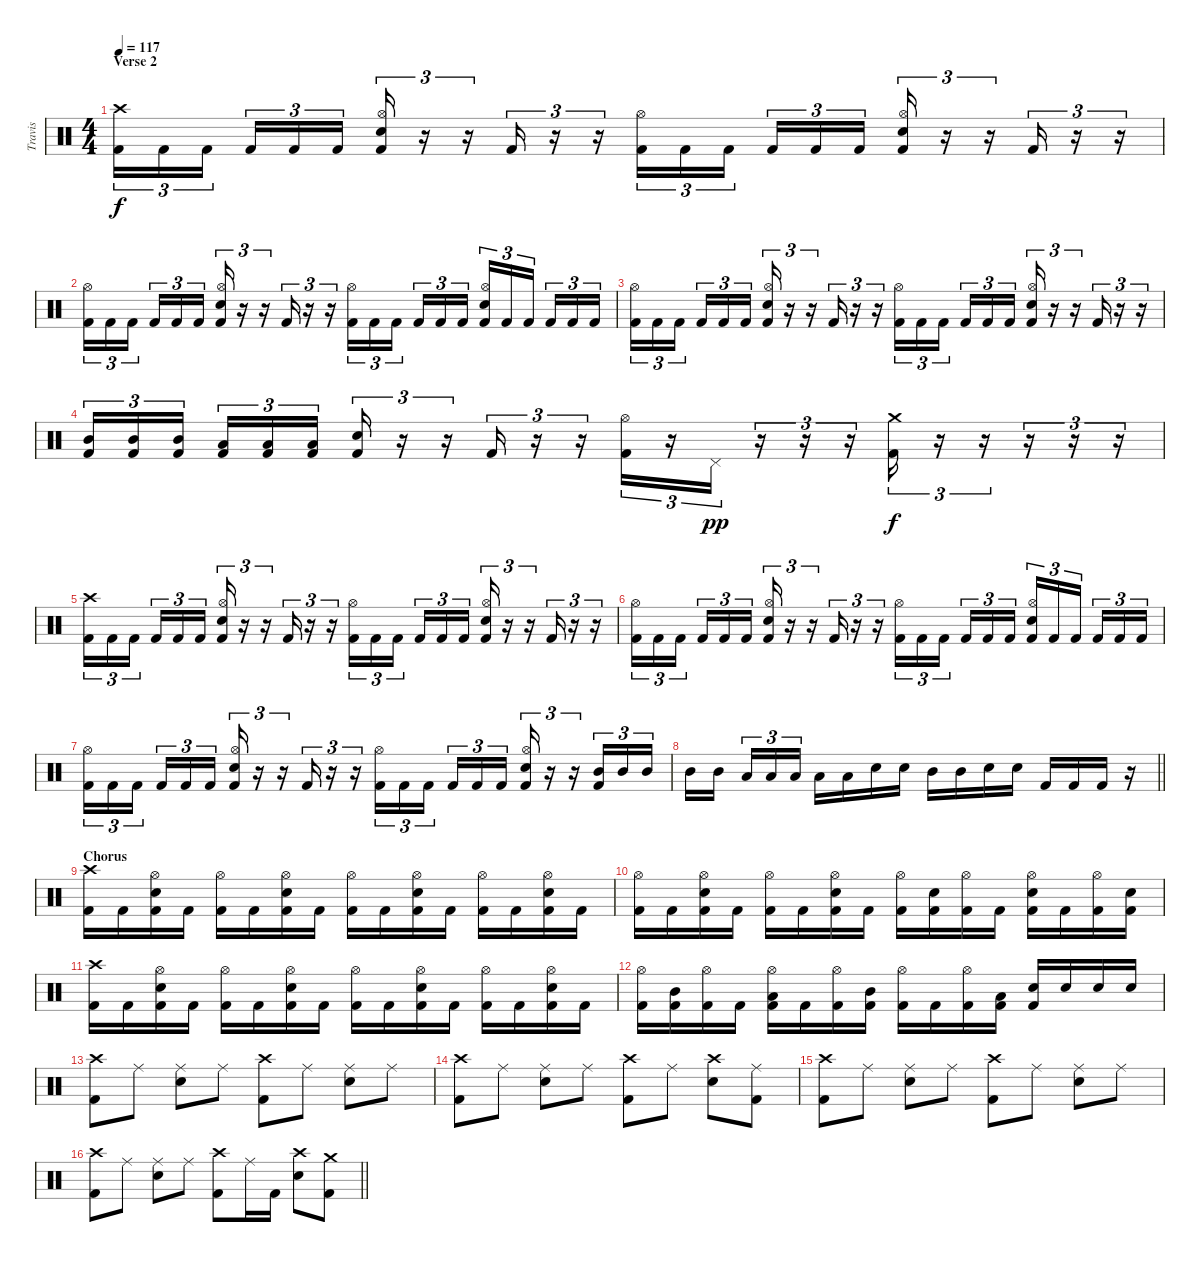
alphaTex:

\track ("Travis" "Travis") {instrument percussion}
\staff {score}
\articulation defaults
\ts (4 4)
\section ("" "Verse 2")
\tempo 117
\clef neutral
\ks c
("Crash high (hit)" "Kick (hit) 2").16{tu (3 2) dy f} "Kick (hit) 2".16{tu (3 2)} "Kick (hit) 2".16{tu (3 2) beam splitsecondary} "Kick (hit) 2".16{tu (3 2)} "Kick (hit) 2".16{tu (3 2)} "Kick (hit) 2".16{tu (3 2)} ("Hi-Hat (open)" "Electric Snare (hit)" "Kick (hit) 2").16{tu (3 2)} r.16{tu (3 2)} r.16{tu (3 2)} "Kick (hit) 2".16{tu (3 2)} r.16{tu (3 2)} r.16{tu (3 2)} ("Hi-Hat (open)" "Kick (hit) 2").16{tu (3 2)} "Kick (hit) 2".16{tu (3 2)} "Kick (hit) 2".16{tu (3 2) beam splitsecondary} "Kick (hit) 2".16{tu (3 2)} "Kick (hit) 2".16{tu (3 2)} "Kick (hit) 2".16{tu (3 2)} ("Hi-Hat (open)" "Electric Snare (hit)" "Kick (hit) 2").16{tu (3 2)} r.16{tu (3 2)} r.16{tu (3 2)} "Kick (hit) 2".16{tu (3 2)} r.16{tu (3 2)} r.16{tu (3 2)} |
("Hi-Hat (open)" "Kick (hit) 2").16{tu (3 2)} "Kick (hit) 2".16{tu (3 2)} "Kick (hit) 2".16{tu (3 2) beam splitsecondary} "Kick (hit) 2".16{tu (3 2)} "Kick (hit) 2".16{tu (3 2)} "Kick (hit) 2".16{tu (3 2)} ("Hi-Hat (open)" "Electric Snare (hit)" "Kick (hit) 2").16{tu (3 2)} r.16{tu (3 2)} r.16{tu (3 2)} "Kick (hit) 2".16{tu (3 2)} r.16{tu (3 2)} r.16{tu (3 2)} ("Hi-Hat (open)" "Kick (hit) 2").16{tu (3 2)} "Kick (hit) 2".16{tu (3 2)} "Kick (hit) 2".16{tu (3 2) beam splitsecondary} "Kick (hit) 2".16{tu (3 2)} "Kick (hit) 2".16{tu (3 2)} "Kick (hit) 2".16{tu (3 2)} ("Hi-Hat (open)" "Electric Snare (hit)" "Kick (hit) 2").16{tu (3 2)} "Kick (hit) 2".16{tu (3 2)} "Kick (hit) 2".16{tu (3 2) beam splitsecondary} "Kick (hit) 2".16{tu (3 2)} "Kick (hit) 2".16{tu (3 2)} "Kick (hit) 2".16{tu (3 2)} |
("Hi-Hat (open)" "Kick (hit) 2").16{tu (3 2)} "Kick (hit) 2".16{tu (3 2)} "Kick (hit) 2".16{tu (3 2) beam splitsecondary} "Kick (hit) 2".16{tu (3 2)} "Kick (hit) 2".16{tu (3 2)} "Kick (hit) 2".16{tu (3 2)} ("Hi-Hat (open)" "Electric Snare (hit)" "Kick (hit) 2").16{tu (3 2)} r.16{tu (3 2)} r.16{tu (3 2)} "Kick (hit) 2".16{tu (3 2)} r.16{tu (3 2)} r.16{tu (3 2)} ("Hi-Hat (open)" "Kick (hit) 2").16{tu (3 2)} "Kick (hit) 2".16{tu (3 2)} "Kick (hit) 2".16{tu (3 2) beam splitsecondary} "Kick (hit) 2".16{tu (3 2)} "Kick (hit) 2".16{tu (3 2)} "Kick (hit) 2".16{tu (3 2)} ("Hi-Hat (open)" "Electric Snare (hit)" "Kick (hit) 2").16{tu (3 2)} r.16{tu (3 2)} r.16{tu (3 2)} "Kick (hit) 2".16{tu (3 2)} r.16{tu (3 2)} r.16{tu (3 2)} |
("Mid Tom (hit)" "Kick (hit) 2").16{tu (3 2)} ("Mid Tom (hit)" "Kick (hit) 2").16{tu (3 2)} ("Mid Tom (hit)" "Kick (hit) 2").16{tu (3 2) beam splitsecondary} ("Low Tom (hit)" "Kick (hit) 2").16{tu (3 2)} ("Low Tom (hit)" "Kick (hit) 2").16{tu (3 2)} ("Low Tom (hit)" "Kick (hit) 2").16{tu (3 2)} ("Electric Snare (hit)" "Kick (hit) 2").16{tu (3 2)} r.16{tu (3 2)} r.16{tu (3 2)} "Kick (hit) 2".16{tu (3 2)} r.16{tu (3 2)} r.16{tu (3 2)} ("Hi-Hat (open)" "Kick (hit) 2").16{tu (3 2)} r.16{tu (3 2)} "Pedal Hi-Hat (hit)".16{tu (3 2) dy pp} r.16{tu (3 2)} r.16{tu (3 2)} r.16{tu (3 2)} ("Crash medium (hit)" "Kick (hit) 2").16{tu (3 2) dy f} r.16{tu (3 2)} r.16{tu (3 2)} r.16{tu (3 2)} r.16{tu (3 2)} r.16{tu (3 2)} |
("Crash high (hit)" "Kick (hit) 2").16{tu (3 2)} "Kick (hit) 2".16{tu (3 2)} "Kick (hit) 2".16{tu (3 2) beam splitsecondary} "Kick (hit) 2".16{tu (3 2)} "Kick (hit) 2".16{tu (3 2)} "Kick (hit) 2".16{tu (3 2)} ("Hi-Hat (open)" "Electric Snare (hit)" "Kick (hit) 2").16{tu (3 2)} r.16{tu (3 2)} r.16{tu (3 2)} "Kick (hit) 2".16{tu (3 2)} r.16{tu (3 2)} r.16{tu (3 2)} ("Hi-Hat (open)" "Kick (hit) 2").16{tu (3 2)} "Kick (hit) 2".16{tu (3 2)} "Kick (hit) 2".16{tu (3 2) beam splitsecondary} "Kick (hit) 2".16{tu (3 2)} "Kick (hit) 2".16{tu (3 2)} "Kick (hit) 2".16{tu (3 2)} ("Hi-Hat (open)" "Electric Snare (hit)" "Kick (hit) 2").16{tu (3 2)} r.16{tu (3 2)} r.16{tu (3 2)} "Kick (hit) 2".16{tu (3 2)} r.16{tu (3 2)} r.16{tu (3 2)} |
("Hi-Hat (open)" "Kick (hit) 2").16{tu (3 2)} "Kick (hit) 2".16{tu (3 2)} "Kick (hit) 2".16{tu (3 2) beam splitsecondary} "Kick (hit) 2".16{tu (3 2)} "Kick (hit) 2".16{tu (3 2)} "Kick (hit) 2".16{tu (3 2)} ("Hi-Hat (open)" "Electric Snare (hit)" "Kick (hit) 2").16{tu (3 2)} r.16{tu (3 2)} r.16{tu (3 2)} "Kick (hit) 2".16{tu (3 2)} r.16{tu (3 2)} r.16{tu (3 2)} ("Hi-Hat (open)" "Kick (hit) 2").16{tu (3 2)} "Kick (hit) 2".16{tu (3 2)} "Kick (hit) 2".16{tu (3 2) beam splitsecondary} "Kick (hit) 2".16{tu (3 2)} "Kick (hit) 2".16{tu (3 2)} "Kick (hit) 2".16{tu (3 2)} ("Hi-Hat (open)" "Electric Snare (hit)" "Kick (hit) 2").16{tu (3 2)} "Kick (hit) 2".16{tu (3 2)} "Kick (hit) 2".16{tu (3 2) beam splitsecondary} "Kick (hit) 2".16{tu (3 2)} "Kick (hit) 2".16{tu (3 2)} "Kick (hit) 2".16{tu (3 2)} |
("Hi-Hat (open)" "Kick (hit) 2").16{tu (3 2)} "Kick (hit) 2".16{tu (3 2)} "Kick (hit) 2".16{tu (3 2) beam splitsecondary} "Kick (hit) 2".16{tu (3 2)} "Kick (hit) 2".16{tu (3 2)} "Kick (hit) 2".16{tu (3 2)} ("Hi-Hat (open)" "Electric Snare (hit)" "Kick (hit) 2").16{tu (3 2)} r.16{tu (3 2)} r.16{tu (3 2)} "Kick (hit) 2".16{tu (3 2)} r.16{tu (3 2)} r.16{tu (3 2)} ("Hi-Hat (open)" "Kick (hit) 2").16{tu (3 2)} "Kick (hit) 2".16{tu (3 2)} "Kick (hit) 2".16{tu (3 2) beam splitsecondary} "Kick (hit) 2".16{tu (3 2)} "Kick (hit) 2".16{tu (3 2)} "Kick (hit) 2".16{tu (3 2)} ("Hi-Hat (open)" "Electric Snare (hit)" "Kick (hit) 2").16{tu (3 2)} r.16{tu (3 2)} r.16{tu (3 2)} ("Mid Tom (hit)" "Kick (hit) 2").16{tu (3 2)} "Mid Tom (hit)".16{tu (3 2)} "Mid Tom (hit)".16{tu (3 2)} |
\barLineRight lightlight "Mid Tom (hit)".16 "Mid Tom (hit)".16{beam splitsecondary} "Low Tom (hit)".16{tu (3 2)} "Low Tom (hit)".16{tu (3 2)} "Low Tom (hit)".16{tu (3 2)} "Low Tom (hit)".16 "Low Tom (hit)".16 "Electric Snare (hit)".16 "Electric Snare (hit)".16 "Mid Tom (hit)".16 "Mid Tom (hit)".16 "Electric Snare (hit)".16 "Electric Snare (hit)".16 "Kick (hit) 2".16 "Kick (hit) 2".16 "Kick (hit) 2".16
r.16 |
\section ("" "Chorus")
("Crash high (hit)" "Kick (hit) 2").16 "Kick (hit) 2".16 ("Hi-Hat (open)" "Electric Snare (hit)" "Kick (hit) 2").16 "Kick (hit) 2".16 ("Hi-Hat (open)" "Kick (hit) 2").16 "Kick (hit) 2".16 ("Hi-Hat (open)" "Electric Snare (hit)" "Kick (hit) 2").16 "Kick (hit) 2".16 ("Hi-Hat (open)" "Kick (hit) 2").16 "Kick (hit) 2".16 ("Hi-Hat (open)" "Electric Snare (hit)" "Kick (hit) 2").16 "Kick (hit) 2".16 ("Hi-Hat (open)" "Kick (hit) 2").16 "Kick (hit) 2".16 ("Hi-Hat (open)" "Electric Snare (hit)" "Kick (hit) 2").16 "Kick (hit) 2".16 |
("Hi-Hat (open)" "Kick (hit) 2").16 "Kick (hit) 2".16 ("Hi-Hat (open)" "Electric Snare (hit)" "Kick (hit) 2").16 "Kick (hit) 2".16 ("Hi-Hat (open)" "Kick (hit) 2").16 "Kick (hit) 2".16 ("Hi-Hat (open)" "Electric Snare (hit)" "Kick (hit) 2").16 "Kick (hit) 2".16 ("Hi-Hat (open)" "Kick (hit) 2").16 ("Electric Snare (hit)" "Kick (hit) 2").16 ("Hi-Hat (open)" "Kick (hit) 2").16 "Kick (hit) 2".16 ("Hi-Hat (open)" "Electric Snare (hit)" "Kick (hit) 2").16 "Kick (hit) 2".16 ("Hi-Hat (open)" "Kick (hit) 2").16 ("Electric Snare (hit)" "Kick (hit) 2").16 |
("Crash high (hit)" "Kick (hit) 2").16 "Kick (hit) 2".16 ("Hi-Hat (open)" "Electric Snare (hit)" "Kick (hit) 2").16 "Kick (hit) 2".16 ("Hi-Hat (open)" "Kick (hit) 2").16 "Kick (hit) 2".16 ("Hi-Hat (open)" "Electric Snare (hit)" "Kick (hit) 2").16 "Kick (hit) 2".16 ("Hi-Hat (open)" "Kick (hit) 2").16 "Kick (hit) 2".16 ("Hi-Hat (open)" "Electric Snare (hit)" "Kick (hit) 2").16 "Kick (hit) 2".16 ("Hi-Hat (open)" "Kick (hit) 2").16 "Kick (hit) 2".16 ("Hi-Hat (open)" "Electric Snare (hit)" "Kick (hit) 2").16 "Kick (hit) 2".16 |
("Hi-Hat (open)" "Kick (hit) 2").16 ("Mid Tom (hit)" "Kick (hit) 2").16 ("Hi-Hat (open)" "Kick (hit) 2").16 "Kick (hit) 2".16 ("Hi-Hat (open)" "Low Tom (hit)" "Kick (hit) 2").16 "Kick (hit) 2".16 ("Hi-Hat (open)" "Kick (hit) 2").16 ("Mid Tom (hit)" "Kick (hit) 2").16 ("Hi-Hat (open)" "Kick (hit) 2").16 "Kick (hit) 2".16 ("Hi-Hat (open)" "Kick (hit) 2").16 ("Low Tom (hit)" "Kick (hit) 2").16 ("Electric Snare (hit)" "Kick (hit) 2").16 "Electric Snare (hit)".16 "Electric Snare (hit)".16 "Electric Snare (hit)".16 |
("Crash high (hit)" "Kick (hit) 2").8 "Ride (middle)".8 ("Ride (middle)" "Electric Snare (hit)").8 "Ride (middle)".8 ("Crash high (hit)" "Kick (hit) 2").8 "Ride (middle)".8 ("Ride (middle)" "Electric Snare (hit)").8 "Ride (middle)".8 |
("Crash high (hit)" "Kick (hit) 2").8 "Ride (middle)".8 ("Ride (middle)" "Electric Snare (hit)").8 "Ride (middle)".8 ("Crash high (hit)" "Kick (hit) 2").8 "Ride (middle)".8 ("Crash high (hit)" "Electric Snare (hit)").8 ("Ride (middle)" "Kick (hit) 2").8 |
("Crash high (hit)" "Kick (hit) 2").8 "Ride (middle)".8 ("Ride (middle)" "Electric Snare (hit)").8 "Ride (middle)".8 ("Crash high (hit)" "Kick (hit) 2").8 "Ride (middle)".8 ("Ride (middle)" "Electric Snare (hit)").8 "Ride (middle)".8 |
\barLineRight lightlight
("Crash high (hit)" "Kick (hit) 2").8 "Ride (middle)".8 ("Ride (middle)" "Electric Snare (hit)").8 "Ride (middle)".8 ("Crash high (hit)" "Kick (hit) 2").8 "Ride (middle)".16 "Kick (hit) 2".16 ("Crash high (hit)" "Electric Snare (hit)").8 ("Crash medium (hit)" "Kick (hit) 2").8
